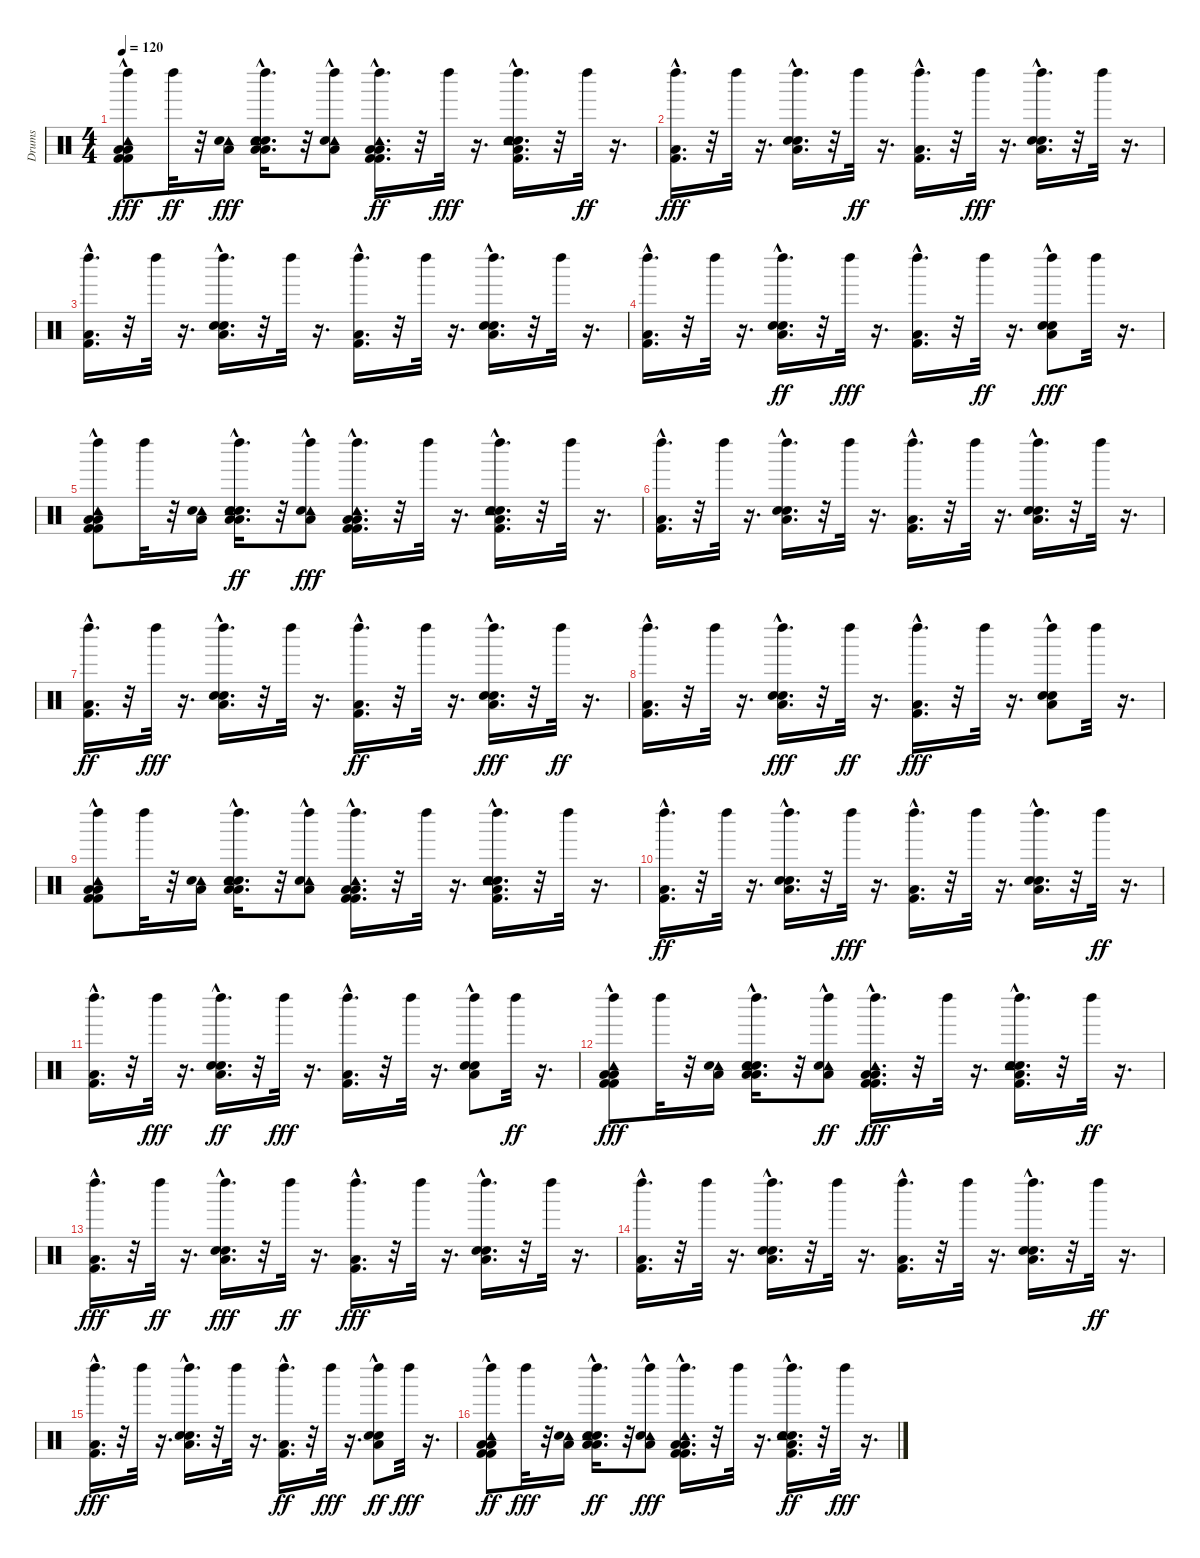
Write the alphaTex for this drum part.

\track ("Drums" "Drums") {instrument percussion}
\staff {score}
\articulation defaults
\ts (4 4)
\tempo 120
\clef neutral
\ks c
("Left Maraca (hit)" "Low Floor Tom (hit)"{hac} "Kick (hit) 2" "Tambourine (hit)" "Low Floor Tom (hit)"{hac} "Kick (hit) 2").8{dy fff} "Left Maraca (hit)".32{dy ff} r.32 ("Tambourine (hit)" "Low Floor Tom (hit)" "Snare (hit) 2").16{dy fff} ("Left Maraca (hit)" "Electric Snare (hit)"{hac} "Low Floor Tom (hit)"{hac} "Snare (hit) 2"{hac} "Tambourine (hit)" "Low Floor Tom (hit)"{hac}).16{d} r.32 ("Left Maraca (hit)" "Tambourine (hit)" "Low Floor Tom (hit)" "Snare (hit) 2"{hac}).8 ("Left Maraca (hit)" "Low Floor Tom (hit)"{hac} "Kick (hit) 2"{hac} "Tambourine (hit)" "Low Floor Tom (hit)"{hac} "Kick (hit) 2"{hac}).16{d dy ff} r.32 "Left Maraca (hit)".32{dy fff} r.16{d} ("Left Maraca (hit)" "Electric Snare (hit)"{hac} "Low Floor Tom (hit)"{hac} "Snare (hit) 2"{hac} "Tambourine (hit)" "Kick (hit) 2").16{d} r.32 "Left Maraca (hit)".32{dy ff} r.16{d} |
("Left Maraca (hit)" "Low Floor Tom (hit)"{hac} "Kick (hit) 2"{hac}).16{d dy fff} r.32 "Left Maraca (hit)".32 r.16{d} ("Left Maraca (hit)" "Electric Snare (hit)"{hac} "Low Floor Tom (hit)"{hac} "Snare (hit) 2"{hac}).16{d} r.32 "Left Maraca (hit)".32{dy ff} r.16{d} ("Left Maraca (hit)" "Low Floor Tom (hit)"{hac} "Kick (hit) 2"{hac}).16{d} r.32 "Left Maraca (hit)".32{dy fff} r.16{d} ("Left Maraca (hit)" "Electric Snare (hit)"{hac} "Low Floor Tom (hit)"{hac} "Snare (hit) 2"{hac}).16{d} r.32 "Left Maraca (hit)".32 r.16{d} |
("Left Maraca (hit)" "Low Floor Tom (hit)"{hac} "Kick (hit) 2"{hac}).16{d} r.32 "Left Maraca (hit)".32 r.16{d} ("Left Maraca (hit)" "Electric Snare (hit)"{hac} "Low Floor Tom (hit)"{hac} "Snare (hit) 2"{hac}).16{d} r.32 "Left Maraca (hit)".32 r.16{d} ("Left Maraca (hit)" "Low Floor Tom (hit)"{hac} "Kick (hit) 2"{hac}).16{d} r.32 "Left Maraca (hit)".32 r.16{d} ("Left Maraca (hit)" "Electric Snare (hit)"{hac} "Low Floor Tom (hit)"{hac} "Snare (hit) 2"{hac}).16{d} r.32 "Left Maraca (hit)".32 r.16{d} |
("Left Maraca (hit)" "Low Floor Tom (hit)"{hac} "Kick (hit) 2"{hac}).16{d} r.32 "Left Maraca (hit)".32 r.16{d} ("Left Maraca (hit)" "Electric Snare (hit)"{hac} "Low Floor Tom (hit)"{hac} "Snare (hit) 2"{hac}).16{d dy ff} r.32 "Left Maraca (hit)".32{dy fff} r.16{d} ("Left Maraca (hit)" "Low Floor Tom (hit)"{hac} "Kick (hit) 2"{hac}).16{d} r.32 "Left Maraca (hit)".32{dy ff} r.16{d} ("Left Maraca (hit)" "Electric Snare (hit)"{hac} "Low Floor Tom (hit)"{hac} "Snare (hit) 2").8{dy fff} "Left Maraca (hit)".32 r.16{d} |
("Left Maraca (hit)" "Low Floor Tom (hit)"{hac} "Kick (hit) 2" "Tambourine (hit)" "Low Floor Tom (hit)"{hac} "Kick (hit) 2").8 "Left Maraca (hit)".32 r.32 ("Tambourine (hit)" "Low Floor Tom (hit)" "Snare (hit) 2").16 ("Left Maraca (hit)" "Electric Snare (hit)"{hac} "Low Floor Tom (hit)"{hac} "Snare (hit) 2"{hac} "Tambourine (hit)" "Low Floor Tom (hit)"{hac}).16{d dy ff} r.32 ("Left Maraca (hit)" "Tambourine (hit)" "Low Floor Tom (hit)" "Snare (hit) 2"{hac}).8{dy fff} ("Left Maraca (hit)" "Low Floor Tom (hit)"{hac} "Kick (hit) 2"{hac} "Tambourine (hit)" "Low Floor Tom (hit)"{hac} "Kick (hit) 2"{hac}).16{d} r.32 "Left Maraca (hit)".32 r.16{d} ("Left Maraca (hit)" "Electric Snare (hit)"{hac} "Low Floor Tom (hit)"{hac} "Snare (hit) 2"{hac} "Tambourine (hit)" "Kick (hit) 2").16{d} r.32 "Left Maraca (hit)".32 r.16{d} |
("Left Maraca (hit)" "Low Floor Tom (hit)"{hac} "Kick (hit) 2"{hac}).16{d} r.32 "Left Maraca (hit)".32 r.16{d} ("Left Maraca (hit)" "Electric Snare (hit)"{hac} "Low Floor Tom (hit)"{hac} "Snare (hit) 2"{hac}).16{d} r.32 "Left Maraca (hit)".32 r.16{d} ("Left Maraca (hit)" "Low Floor Tom (hit)"{hac} "Kick (hit) 2"{hac}).16{d} r.32 "Left Maraca (hit)".32 r.16{d} ("Left Maraca (hit)" "Electric Snare (hit)"{hac} "Low Floor Tom (hit)"{hac} "Snare (hit) 2"{hac}).16{d} r.32 "Left Maraca (hit)".32 r.16{d} |
("Left Maraca (hit)" "Low Floor Tom (hit)"{hac} "Kick (hit) 2"{hac}).16{d dy ff} r.32 "Left Maraca (hit)".32{dy fff} r.16{d} ("Left Maraca (hit)" "Electric Snare (hit)"{hac} "Low Floor Tom (hit)"{hac} "Snare (hit) 2"{hac}).16{d} r.32 "Left Maraca (hit)".32 r.16{d} ("Left Maraca (hit)" "Low Floor Tom (hit)"{hac} "Kick (hit) 2"{hac}).16{d dy ff} r.32 "Left Maraca (hit)".32 r.16{d} ("Left Maraca (hit)" "Electric Snare (hit)"{hac} "Low Floor Tom (hit)"{hac} "Snare (hit) 2"{hac}).16{d dy fff} r.32 "Left Maraca (hit)".32{dy ff} r.16{d} |
("Left Maraca (hit)" "Low Floor Tom (hit)"{hac} "Kick (hit) 2"{hac}).16{d} r.32 "Left Maraca (hit)".32 r.16{d} ("Left Maraca (hit)" "Electric Snare (hit)"{hac} "Low Floor Tom (hit)"{hac} "Snare (hit) 2"{hac}).16{d dy fff} r.32 "Left Maraca (hit)".32{dy ff} r.16{d} ("Left Maraca (hit)" "Low Floor Tom (hit)"{hac} "Kick (hit) 2"{hac}).16{d dy fff} r.32 "Left Maraca (hit)".32 r.16{d} ("Left Maraca (hit)" "Electric Snare (hit)"{hac} "Low Floor Tom (hit)"{hac} "Snare (hit) 2").8 "Left Maraca (hit)".32 r.16{d} |
("Left Maraca (hit)" "Low Floor Tom (hit)"{hac} "Kick (hit) 2" "Tambourine (hit)" "Low Floor Tom (hit)"{hac} "Kick (hit) 2").8 "Left Maraca (hit)".32 r.32 ("Tambourine (hit)" "Low Floor Tom (hit)" "Snare (hit) 2").16 ("Left Maraca (hit)" "Electric Snare (hit)"{hac} "Low Floor Tom (hit)"{hac} "Snare (hit) 2"{hac} "Tambourine (hit)" "Low Floor Tom (hit)"{hac}).16{d} r.32 ("Left Maraca (hit)" "Tambourine (hit)" "Low Floor Tom (hit)" "Snare (hit) 2"{hac}).8 ("Left Maraca (hit)" "Low Floor Tom (hit)"{hac} "Kick (hit) 2"{hac} "Tambourine (hit)" "Low Floor Tom (hit)"{hac} "Kick (hit) 2"{hac}).16{d} r.32 "Left Maraca (hit)".32 r.16{d} ("Left Maraca (hit)" "Electric Snare (hit)"{hac} "Low Floor Tom (hit)"{hac} "Snare (hit) 2"{hac} "Tambourine (hit)" "Kick (hit) 2").16{d} r.32 "Left Maraca (hit)".32 r.16{d} |
("Left Maraca (hit)" "Low Floor Tom (hit)"{hac} "Kick (hit) 2"{hac}).16{d dy ff} r.32 "Left Maraca (hit)".32 r.16{d} ("Left Maraca (hit)" "Electric Snare (hit)"{hac} "Low Floor Tom (hit)"{hac} "Snare (hit) 2"{hac}).16{d} r.32 "Left Maraca (hit)".32{dy fff} r.16{d} ("Left Maraca (hit)" "Low Floor Tom (hit)"{hac} "Kick (hit) 2"{hac}).16{d} r.32 "Left Maraca (hit)".32 r.16{d} ("Left Maraca (hit)" "Electric Snare (hit)"{hac} "Low Floor Tom (hit)"{hac} "Snare (hit) 2"{hac}).16{d} r.32 "Left Maraca (hit)".32{dy ff} r.16{d} |
("Left Maraca (hit)" "Low Floor Tom (hit)"{hac} "Kick (hit) 2"{hac}).16{d} r.32 "Left Maraca (hit)".32{dy fff} r.16{d} ("Left Maraca (hit)" "Electric Snare (hit)"{hac} "Low Floor Tom (hit)"{hac} "Snare (hit) 2"{hac}).16{d dy ff} r.32 "Left Maraca (hit)".32{dy fff} r.16{d} ("Left Maraca (hit)" "Low Floor Tom (hit)"{hac} "Kick (hit) 2"{hac}).16{d} r.32 "Left Maraca (hit)".32 r.16{d} ("Left Maraca (hit)" "Electric Snare (hit)"{hac} "Low Floor Tom (hit)"{hac} "Snare (hit) 2").8 "Left Maraca (hit)".32{dy ff} r.16{d} |
("Left Maraca (hit)" "Low Floor Tom (hit)"{hac} "Kick (hit) 2" "Tambourine (hit)" "Low Floor Tom (hit)"{hac} "Kick (hit) 2").8{dy fff} "Left Maraca (hit)".32 r.32 ("Tambourine (hit)" "Low Floor Tom (hit)" "Snare (hit) 2").16 ("Left Maraca (hit)" "Electric Snare (hit)"{hac} "Low Floor Tom (hit)"{hac} "Snare (hit) 2"{hac} "Tambourine (hit)" "Low Floor Tom (hit)"{hac}).16{d} r.32 ("Left Maraca (hit)" "Tambourine (hit)" "Low Floor Tom (hit)" "Snare (hit) 2"{hac}).8{dy ff} ("Left Maraca (hit)" "Low Floor Tom (hit)"{hac} "Kick (hit) 2"{hac} "Tambourine (hit)" "Low Floor Tom (hit)"{hac} "Kick (hit) 2"{hac}).16{d dy fff} r.32 "Left Maraca (hit)".32 r.16{d} ("Left Maraca (hit)" "Electric Snare (hit)"{hac} "Low Floor Tom (hit)"{hac} "Snare (hit) 2"{hac} "Tambourine (hit)" "Kick (hit) 2").16{d} r.32 "Left Maraca (hit)".32{dy ff} r.16{d} |
("Left Maraca (hit)" "Low Floor Tom (hit)"{hac} "Kick (hit) 2"{hac}).16{d dy fff} r.32 "Left Maraca (hit)".32{dy ff} r.16{d} ("Left Maraca (hit)" "Electric Snare (hit)"{hac} "Low Floor Tom (hit)"{hac} "Snare (hit) 2"{hac}).16{d dy fff} r.32 "Left Maraca (hit)".32{dy ff} r.16{d} ("Left Maraca (hit)" "Low Floor Tom (hit)"{hac} "Kick (hit) 2"{hac}).16{d dy fff} r.32 "Left Maraca (hit)".32 r.16{d} ("Left Maraca (hit)" "Electric Snare (hit)"{hac} "Low Floor Tom (hit)"{hac} "Snare (hit) 2"{hac}).16{d} r.32 "Left Maraca (hit)".32 r.16{d} |
("Left Maraca (hit)" "Low Floor Tom (hit)"{hac} "Kick (hit) 2"{hac}).16{d} r.32 "Left Maraca (hit)".32 r.16{d} ("Left Maraca (hit)" "Electric Snare (hit)"{hac} "Low Floor Tom (hit)"{hac} "Snare (hit) 2"{hac}).16{d} r.32 "Left Maraca (hit)".32 r.16{d} ("Left Maraca (hit)" "Low Floor Tom (hit)"{hac} "Kick (hit) 2"{hac}).16{d} r.32 "Left Maraca (hit)".32 r.16{d} ("Left Maraca (hit)" "Electric Snare (hit)"{hac} "Low Floor Tom (hit)"{hac} "Snare (hit) 2"{hac}).16{d} r.32 "Left Maraca (hit)".32{dy ff} r.16{d} |
("Left Maraca (hit)" "Low Floor Tom (hit)"{hac} "Kick (hit) 2"{hac}).16{d dy fff} r.32 "Left Maraca (hit)".32 r.16{d} ("Left Maraca (hit)" "Electric Snare (hit)"{hac} "Low Floor Tom (hit)"{hac} "Snare (hit) 2"{hac}).16{d} r.32 "Left Maraca (hit)".32 r.16{d} ("Left Maraca (hit)" "Low Floor Tom (hit)"{hac} "Kick (hit) 2"{hac}).16{d dy ff} r.32 "Left Maraca (hit)".32{dy fff} r.16{d} ("Left Maraca (hit)" "Electric Snare (hit)"{hac} "Low Floor Tom (hit)"{hac} "Snare (hit) 2").8{dy ff} "Left Maraca (hit)".32{dy fff} r.16{d} |
("Left Maraca (hit)" "Low Floor Tom (hit)"{hac} "Kick (hit) 2" "Tambourine (hit)" "Low Floor Tom (hit)"{hac} "Kick (hit) 2").8{dy ff} "Left Maraca (hit)".32{dy fff} r.32 ("Tambourine (hit)" "Low Floor Tom (hit)" "Snare (hit) 2").16 ("Left Maraca (hit)" "Electric Snare (hit)"{hac} "Low Floor Tom (hit)"{hac} "Snare (hit) 2"{hac} "Tambourine (hit)" "Low Floor Tom (hit)"{hac}).16{d dy ff} r.32 ("Left Maraca (hit)" "Tambourine (hit)" "Low Floor Tom (hit)" "Snare (hit) 2"{hac}).8{dy fff} ("Left Maraca (hit)" "Low Floor Tom (hit)"{hac} "Kick (hit) 2"{hac} "Tambourine (hit)" "Low Floor Tom (hit)"{hac} "Kick (hit) 2"{hac}).16{d} r.32 "Left Maraca (hit)".32 r.16{d} ("Left Maraca (hit)" "Electric Snare (hit)"{hac} "Low Floor Tom (hit)"{hac} "Snare (hit) 2"{hac} "Tambourine (hit)" "Kick (hit) 2").16{d dy ff} r.32 "Left Maraca (hit)".32{dy fff} r.16{d}
